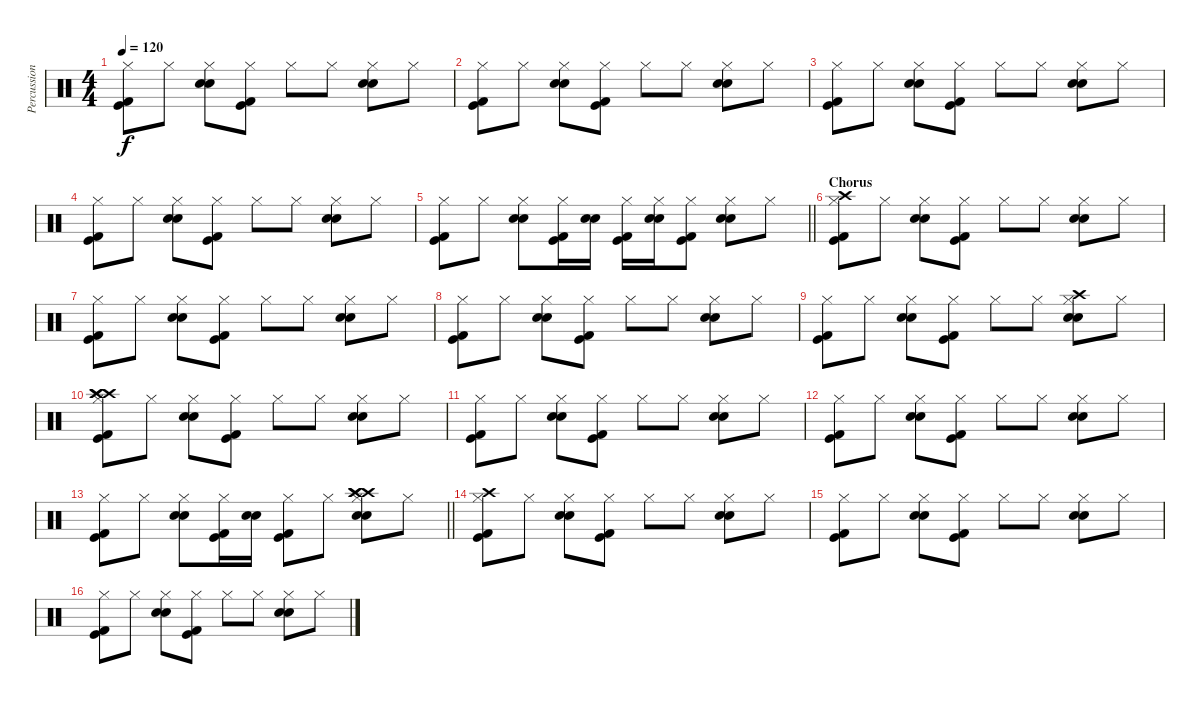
\track ("Percussions" "Percussion") {instrument percussion}
\staff {score}
\articulation defaults
\ts (4 4)
\tempo 120
\clef neutral
\ks c
("Hi-Hat (closed)" "Kick (hit)" "Kick (hit) 2").8{dy f} "Hi-Hat (closed)".8 ("Hi-Hat (closed)" "Electric Snare (hit)" "Electric Snare (hit)").8 ("Hi-Hat (closed)" "Kick (hit)" "Kick (hit) 2").8 "Hi-Hat (closed)".8 "Hi-Hat (closed)".8 ("Hi-Hat (closed)" "Electric Snare (hit)" "Electric Snare (hit)").8 "Hi-Hat (closed)".8 |
("Hi-Hat (closed)" "Kick (hit)" "Kick (hit) 2").8 "Hi-Hat (closed)".8 ("Hi-Hat (closed)" "Electric Snare (hit)" "Electric Snare (hit)").8 ("Hi-Hat (closed)" "Kick (hit)" "Kick (hit) 2").8 "Hi-Hat (closed)".8 "Hi-Hat (closed)".8 ("Hi-Hat (closed)" "Electric Snare (hit)" "Electric Snare (hit)").8 "Hi-Hat (closed)".8 |
("Hi-Hat (closed)" "Kick (hit)" "Kick (hit) 2").8 "Hi-Hat (closed)".8 ("Hi-Hat (closed)" "Electric Snare (hit)" "Electric Snare (hit)").8 ("Hi-Hat (closed)" "Kick (hit)" "Kick (hit) 2").8 "Hi-Hat (closed)".8 "Hi-Hat (closed)".8 ("Hi-Hat (closed)" "Electric Snare (hit)" "Electric Snare (hit)").8 "Hi-Hat (closed)".8 |
("Hi-Hat (closed)" "Kick (hit)" "Kick (hit) 2").8 "Hi-Hat (closed)".8 ("Hi-Hat (closed)" "Electric Snare (hit)" "Electric Snare (hit)").8 ("Hi-Hat (closed)" "Kick (hit)" "Kick (hit) 2").8 "Hi-Hat (closed)".8 "Hi-Hat (closed)".8 ("Hi-Hat (closed)" "Electric Snare (hit)" "Electric Snare (hit)").8 "Hi-Hat (closed)".8 |
\barLineRight lightlight
("Hi-Hat (closed)" "Kick (hit)" "Kick (hit) 2").8 "Hi-Hat (closed)".8 ("Hi-Hat (closed)" "Electric Snare (hit)" "Electric Snare (hit)").8 ("Hi-Hat (closed)" "Kick (hit)" "Kick (hit) 2").16 ("Electric Snare (hit)" "Electric Snare (hit)").16 ("Hi-Hat (closed)" "Kick (hit)" "Kick (hit) 2").16 ("Hi-Hat (closed)" "Electric Snare (hit)" "Electric Snare (hit)").16 ("Hi-Hat (closed)" "Kick (hit)" "Kick (hit) 2").8 ("Hi-Hat (closed)" "Electric Snare (hit)" "Electric Snare (hit)").8 "Hi-Hat (closed)".8 |
\section ("" "Chorus")
("Crash high (hit)" "Hi-Hat (closed)" "Kick (hit)" "Kick (hit) 2").8 "Hi-Hat (closed)".8 ("Hi-Hat (closed)" "Electric Snare (hit)" "Electric Snare (hit)").8 ("Hi-Hat (closed)" "Kick (hit)" "Kick (hit) 2").8 "Hi-Hat (closed)".8 "Hi-Hat (closed)".8 ("Hi-Hat (closed)" "Electric Snare (hit)" "Electric Snare (hit)").8 "Hi-Hat (closed)".8 |
("Hi-Hat (closed)" "Kick (hit)" "Kick (hit) 2").8 "Hi-Hat (closed)".8 ("Hi-Hat (closed)" "Electric Snare (hit)" "Electric Snare (hit)").8 ("Hi-Hat (closed)" "Kick (hit)" "Kick (hit) 2").8 "Hi-Hat (closed)".8 "Hi-Hat (closed)".8 ("Hi-Hat (closed)" "Electric Snare (hit)" "Electric Snare (hit)").8 "Hi-Hat (closed)".8 |
("Hi-Hat (closed)" "Kick (hit)" "Kick (hit) 2").8 "Hi-Hat (closed)".8 ("Hi-Hat (closed)" "Electric Snare (hit)" "Electric Snare (hit)").8 ("Hi-Hat (closed)" "Kick (hit)" "Kick (hit) 2").8 "Hi-Hat (closed)".8 "Hi-Hat (closed)".8 ("Hi-Hat (closed)" "Electric Snare (hit)" "Electric Snare (hit)").8 "Hi-Hat (closed)".8 |
("Hi-Hat (closed)" "Kick (hit)" "Kick (hit) 2").8 "Hi-Hat (closed)".8 ("Hi-Hat (closed)" "Electric Snare (hit)" "Electric Snare (hit)").8 ("Hi-Hat (closed)" "Kick (hit)" "Kick (hit) 2").8 "Hi-Hat (closed)".8 "Hi-Hat (closed)".8 ("Hi-Hat (closed)" "Electric Snare (hit)" "Electric Snare (hit)" "Crash high (hit)").8 "Hi-Hat (closed)".8 |
("Crash high (hit)" "Hi-Hat (closed)" "Crash high (hit)" "Kick (hit)" "Kick (hit) 2" "Crash high (hit)").8 "Hi-Hat (closed)".8 ("Hi-Hat (closed)" "Electric Snare (hit)" "Electric Snare (hit)").8 ("Hi-Hat (closed)" "Kick (hit)" "Kick (hit) 2").8 "Hi-Hat (closed)".8 "Hi-Hat (closed)".8 ("Hi-Hat (closed)" "Electric Snare (hit)" "Electric Snare (hit)").8 "Hi-Hat (closed)".8 |
("Hi-Hat (closed)" "Kick (hit)" "Kick (hit) 2").8 "Hi-Hat (closed)".8 ("Hi-Hat (closed)" "Electric Snare (hit)" "Electric Snare (hit)").8 ("Hi-Hat (closed)" "Kick (hit)" "Kick (hit) 2").8 "Hi-Hat (closed)".8 "Hi-Hat (closed)".8 ("Hi-Hat (closed)" "Electric Snare (hit)" "Electric Snare (hit)").8 "Hi-Hat (closed)".8 |
("Hi-Hat (closed)" "Kick (hit)" "Kick (hit) 2").8 "Hi-Hat (closed)".8 ("Hi-Hat (closed)" "Electric Snare (hit)" "Electric Snare (hit)").8 ("Hi-Hat (closed)" "Kick (hit)" "Kick (hit) 2").8 "Hi-Hat (closed)".8 "Hi-Hat (closed)".8 ("Hi-Hat (closed)" "Electric Snare (hit)" "Electric Snare (hit)").8 "Hi-Hat (closed)".8 |
\barLineRight lightlight
("Hi-Hat (closed)" "Kick (hit)" "Kick (hit) 2").8 "Hi-Hat (closed)".8 ("Hi-Hat (closed)" "Electric Snare (hit)" "Electric Snare (hit)").8 ("Hi-Hat (closed)" "Kick (hit)" "Kick (hit) 2").16 ("Electric Snare (hit)" "Electric Snare (hit)").16 ("Hi-Hat (closed)" "Kick (hit)" "Kick (hit) 2").8 "Hi-Hat (closed)".8 ("Crash high (hit)" "Hi-Hat (closed)" "Electric Snare (hit)" "Electric Snare (hit)" "Crash high (hit)" "Crash high (hit)").8 "Hi-Hat (closed)".8 |
("Crash high (hit)" "Hi-Hat (closed)" "Kick (hit)" "Kick (hit) 2").8 "Hi-Hat (closed)".8 ("Hi-Hat (closed)" "Electric Snare (hit)" "Electric Snare (hit)").8 ("Hi-Hat (closed)" "Kick (hit)" "Kick (hit) 2").8 "Hi-Hat (closed)".8 "Hi-Hat (closed)".8 ("Hi-Hat (closed)" "Electric Snare (hit)" "Electric Snare (hit)").8 "Hi-Hat (closed)".8 |
("Hi-Hat (closed)" "Kick (hit)" "Kick (hit) 2").8 "Hi-Hat (closed)".8 ("Hi-Hat (closed)" "Electric Snare (hit)" "Electric Snare (hit)").8 ("Hi-Hat (closed)" "Kick (hit)" "Kick (hit) 2").8 "Hi-Hat (closed)".8 "Hi-Hat (closed)".8 ("Hi-Hat (closed)" "Electric Snare (hit)" "Electric Snare (hit)").8 "Hi-Hat (closed)".8 |
("Hi-Hat (closed)" "Kick (hit)" "Kick (hit) 2").8 "Hi-Hat (closed)".8 ("Hi-Hat (closed)" "Electric Snare (hit)" "Electric Snare (hit)").8 ("Hi-Hat (closed)" "Kick (hit)" "Kick (hit) 2").8 "Hi-Hat (closed)".8 "Hi-Hat (closed)".8 ("Hi-Hat (closed)" "Electric Snare (hit)" "Electric Snare (hit)").8 "Hi-Hat (closed)".8
